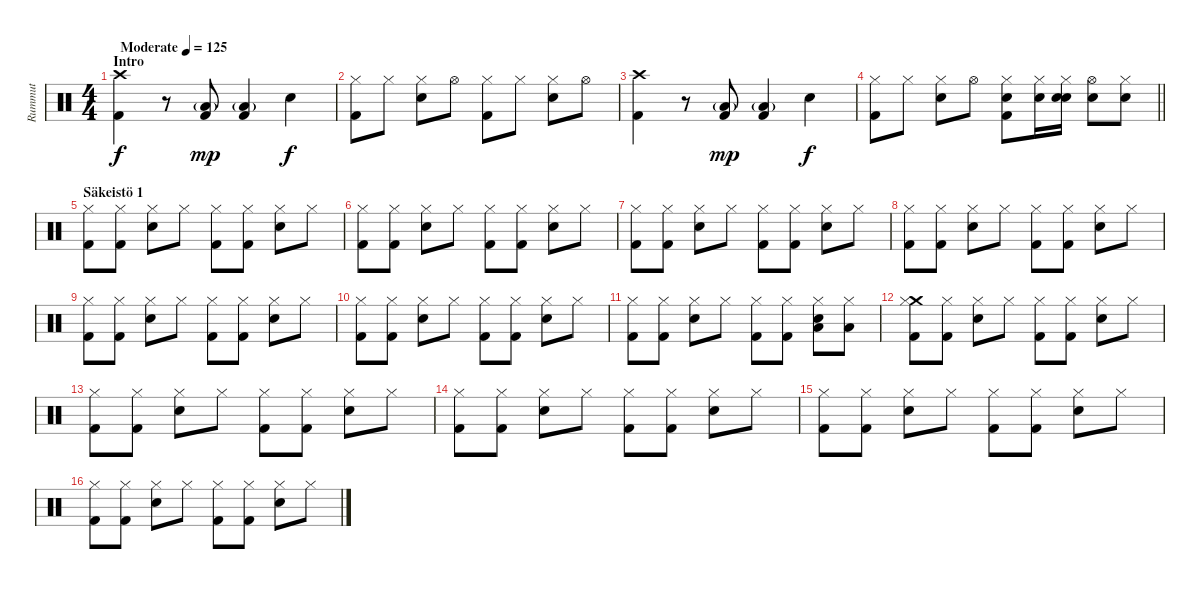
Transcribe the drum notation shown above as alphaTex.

\track ("Rummut" "Rummut") {instrument percussion}
\staff {score}
\articulation defaults
\ts (4 4)
\section ("" "Intro")
\tempo (125 "Moderate")
\clef neutral
\ks c
("Kick (hit) 2" "Crash high (hit)").4{dy f} r.8 ("Low Tom (hit)"{g} "Kick (hit) 2").8{dy mp} ("Low Tom (hit)"{g} "Kick (hit) 2").4 "Snare (hit) 2".4{dy f} |
("Hi-Hat (closed)" "Kick (hit) 2").8 "Hi-Hat (closed)".8 ("Hi-Hat (closed)" "Snare (hit) 2").8 "Hi-Hat (open)".8 ("Hi-Hat (closed)" "Kick (hit) 2").8 "Hi-Hat (closed)".8 ("Hi-Hat (closed)" "Snare (hit) 2").8 "Hi-Hat (open)".8 |
("Kick (hit) 2" "Crash high (hit)").4 r.8 ("Low Tom (hit)"{g} "Kick (hit) 2").8{dy mp} ("Low Tom (hit)"{g} "Kick (hit) 2").4 "Snare (hit) 2".4{dy f} |
\barLineRight lightlight
("Hi-Hat (closed)" "Kick (hit) 2").8 "Hi-Hat (closed)".8 ("Hi-Hat (closed)" "Snare (hit) 2").8 "Hi-Hat (open)".8 ("Snare (hit) 2" "Hi-Hat (closed)" "Kick (hit) 2").8 ("Snare (hit) 2" "Hi-Hat (closed)").16 ("Snare (hit) 2" "Hi-Hat (closed)" "Snare (hit) 2").16 ("Snare (hit) 2" "Hi-Hat (open)").8 ("Snare (hit) 2" "Hi-Hat (closed)").8 |
\section ("" "Säkeistö 1")
("Kick (hit) 2" "Hi-Hat (closed)").8 ("Kick (hit) 2" "Hi-Hat (closed)").8 ("Snare (hit) 2" "Hi-Hat (closed)").8 "Hi-Hat (closed)".8 ("Kick (hit) 2" "Hi-Hat (closed)").8 ("Kick (hit) 2" "Hi-Hat (closed)").8 ("Snare (hit) 2" "Hi-Hat (closed)").8 "Hi-Hat (closed)".8 |
("Kick (hit) 2" "Hi-Hat (closed)").8 ("Kick (hit) 2" "Hi-Hat (closed)").8 ("Snare (hit) 2" "Hi-Hat (closed)").8 "Hi-Hat (closed)".8 ("Kick (hit) 2" "Hi-Hat (closed)").8 ("Kick (hit) 2" "Hi-Hat (closed)").8 ("Snare (hit) 2" "Hi-Hat (closed)").8 "Hi-Hat (closed)".8 |
("Kick (hit) 2" "Hi-Hat (closed)").8 ("Kick (hit) 2" "Hi-Hat (closed)").8 ("Snare (hit) 2" "Hi-Hat (closed)").8 "Hi-Hat (closed)".8 ("Kick (hit) 2" "Hi-Hat (closed)").8 ("Kick (hit) 2" "Hi-Hat (closed)").8 ("Snare (hit) 2" "Hi-Hat (closed)").8 "Hi-Hat (closed)".8 |
("Kick (hit) 2" "Hi-Hat (closed)").8 ("Kick (hit) 2" "Hi-Hat (closed)").8 ("Snare (hit) 2" "Hi-Hat (closed)").8 "Hi-Hat (closed)".8 ("Kick (hit) 2" "Hi-Hat (closed)").8 ("Kick (hit) 2" "Hi-Hat (closed)").8 ("Snare (hit) 2" "Hi-Hat (closed)").8 "Hi-Hat (closed)".8 |
("Kick (hit) 2" "Hi-Hat (closed)").8 ("Kick (hit) 2" "Hi-Hat (closed)").8 ("Snare (hit) 2" "Hi-Hat (closed)").8 "Hi-Hat (closed)".8 ("Kick (hit) 2" "Hi-Hat (closed)").8 ("Kick (hit) 2" "Hi-Hat (closed)").8 ("Snare (hit) 2" "Hi-Hat (closed)").8 "Hi-Hat (closed)".8 |
("Kick (hit) 2" "Hi-Hat (closed)").8 ("Kick (hit) 2" "Hi-Hat (closed)").8 ("Snare (hit) 2" "Hi-Hat (closed)").8 "Hi-Hat (closed)".8 ("Kick (hit) 2" "Hi-Hat (closed)").8 ("Kick (hit) 2" "Hi-Hat (closed)").8 ("Snare (hit) 2" "Hi-Hat (closed)").8 "Hi-Hat (closed)".8 |
("Kick (hit) 2" "Hi-Hat (closed)").8 ("Kick (hit) 2" "Hi-Hat (closed)").8 ("Snare (hit) 2" "Hi-Hat (closed)").8 "Hi-Hat (closed)".8 ("Kick (hit) 2" "Hi-Hat (closed)").8 ("Kick (hit) 2" "Hi-Hat (closed)").8 ("Low Tom (hit)" "Snare (hit) 2" "Hi-Hat (closed)").8 ("Low Tom (hit)" "Hi-Hat (closed)").8 |
("Crash medium (hit)" "Kick (hit) 2" "Hi-Hat (closed)").8 ("Kick (hit) 2" "Hi-Hat (closed)").8 ("Snare (hit) 2" "Hi-Hat (closed)").8 "Hi-Hat (closed)".8 ("Kick (hit) 2" "Hi-Hat (closed)").8 ("Kick (hit) 2" "Hi-Hat (closed)").8 ("Snare (hit) 2" "Hi-Hat (closed)").8 "Hi-Hat (closed)".8 |
("Kick (hit) 2" "Hi-Hat (closed)").8 ("Kick (hit) 2" "Hi-Hat (closed)").8 ("Snare (hit) 2" "Hi-Hat (closed)").8 "Hi-Hat (closed)".8 ("Kick (hit) 2" "Hi-Hat (closed)").8 ("Kick (hit) 2" "Hi-Hat (closed)").8 ("Snare (hit) 2" "Hi-Hat (closed)").8 "Hi-Hat (closed)".8 |
("Kick (hit) 2" "Hi-Hat (closed)").8 ("Kick (hit) 2" "Hi-Hat (closed)").8 ("Snare (hit) 2" "Hi-Hat (closed)").8 "Hi-Hat (closed)".8 ("Kick (hit) 2" "Hi-Hat (closed)").8 ("Kick (hit) 2" "Hi-Hat (closed)").8 ("Snare (hit) 2" "Hi-Hat (closed)").8 "Hi-Hat (closed)".8 |
("Kick (hit) 2" "Hi-Hat (closed)").8 ("Kick (hit) 2" "Hi-Hat (closed)").8 ("Snare (hit) 2" "Hi-Hat (closed)").8 "Hi-Hat (closed)".8 ("Kick (hit) 2" "Hi-Hat (closed)").8 ("Kick (hit) 2" "Hi-Hat (closed)").8 ("Snare (hit) 2" "Hi-Hat (closed)").8 "Hi-Hat (closed)".8 |
("Kick (hit) 2" "Hi-Hat (closed)").8 ("Kick (hit) 2" "Hi-Hat (closed)").8 ("Snare (hit) 2" "Hi-Hat (closed)").8 "Hi-Hat (closed)".8 ("Kick (hit) 2" "Hi-Hat (closed)").8 ("Kick (hit) 2" "Hi-Hat (closed)").8 ("Snare (hit) 2" "Hi-Hat (closed)").8 "Hi-Hat (closed)".8
